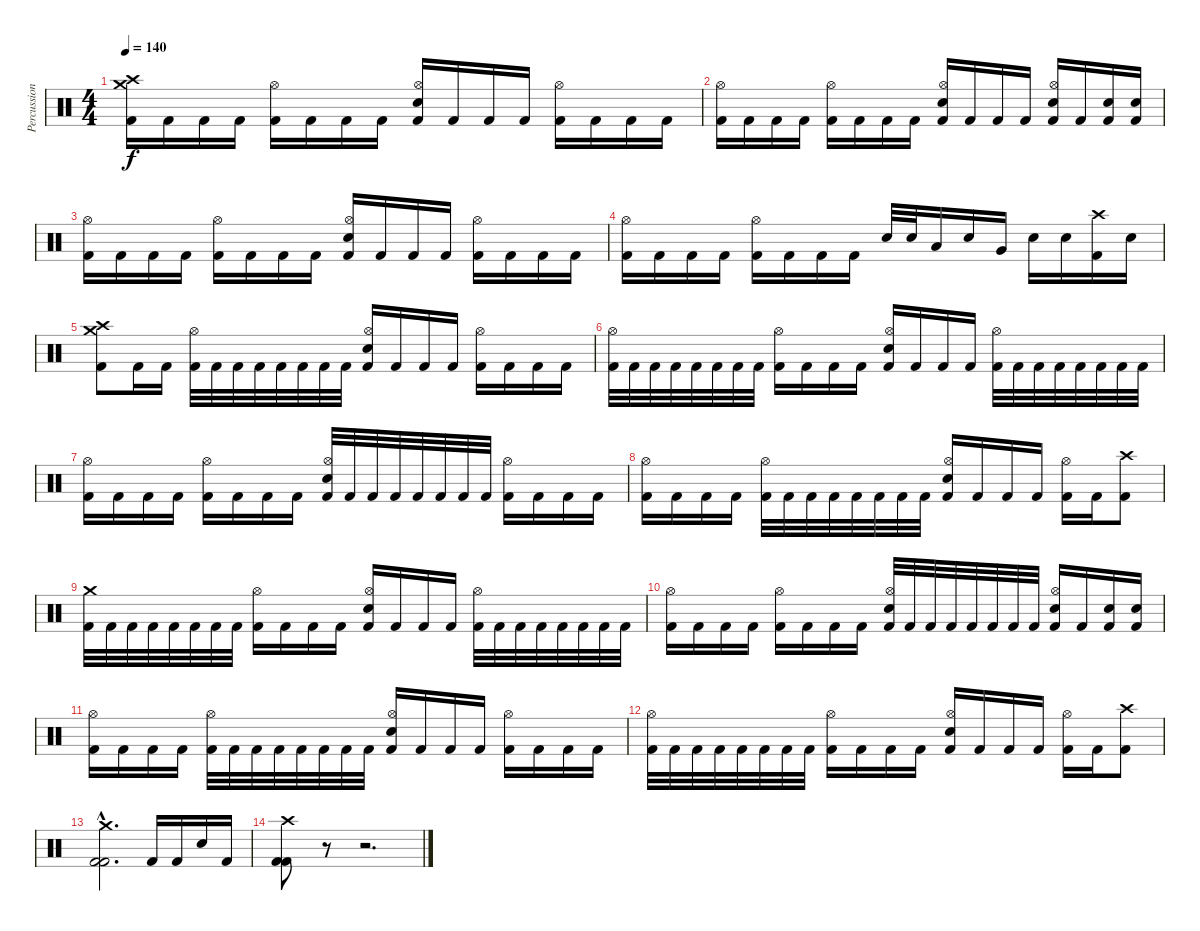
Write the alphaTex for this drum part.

\track ("Percussion" "Percussion") {instrument percussion}
\staff {score}
\articulation defaults
\ts (4 4)
\tempo 140
\clef neutral
\ks c
("Crash medium (hit)" "Crash high (hit)" "Kick (hit) 2").16{dy f} "Kick (hit) 2".16 "Kick (hit) 2".16 "Kick (hit) 2".16 ("Hi-Hat (open)" "Kick (hit) 2").16 "Kick (hit) 2".16 "Kick (hit) 2".16 "Kick (hit) 2".16 ("Hi-Hat (open)" "Electric Snare (hit)" "Kick (hit) 2").16 "Kick (hit) 2".16 "Kick (hit) 2".16 "Kick (hit) 2".16 ("Hi-Hat (open)" "Kick (hit) 2").16 "Kick (hit) 2".16 "Kick (hit) 2".16 "Kick (hit) 2".16 |
("Hi-Hat (open)" "Kick (hit) 2").16 "Kick (hit) 2".16 "Kick (hit) 2".16 "Kick (hit) 2".16 ("Hi-Hat (open)" "Kick (hit) 2").16 "Kick (hit) 2".16 "Kick (hit) 2".16 "Kick (hit) 2".16 ("Hi-Hat (open)" "Electric Snare (hit)" "Kick (hit) 2").16 "Kick (hit) 2".16 "Kick (hit) 2".16 "Kick (hit) 2".16 ("Hi-Hat (open)" "Electric Snare (hit)" "Kick (hit) 2").16 "Kick (hit) 2".16 ("Electric Snare (hit)" "Kick (hit) 2").16 ("Electric Snare (hit)" "Kick (hit) 2").16 |
("Hi-Hat (open)" "Kick (hit) 2").16 "Kick (hit) 2".16 "Kick (hit) 2".16 "Kick (hit) 2".16 ("Hi-Hat (open)" "Kick (hit) 2").16 "Kick (hit) 2".16 "Kick (hit) 2".16 "Kick (hit) 2".16 ("Hi-Hat (open)" "Electric Snare (hit)" "Kick (hit) 2").16 "Kick (hit) 2".16 "Kick (hit) 2".16 "Kick (hit) 2".16 ("Hi-Hat (open)" "Kick (hit) 2").16 "Kick (hit) 2".16 "Kick (hit) 2".16 "Kick (hit) 2".16 |
("Hi-Hat (open)" "Kick (hit) 2").16 "Kick (hit) 2".16 "Kick (hit) 2".16 "Kick (hit) 2".16 ("Hi-Hat (open)" "Kick (hit) 2").16 "Kick (hit) 2".16 "Kick (hit) 2".16 "Kick (hit) 2".16 "Electric Snare (hit)".32 "Electric Snare (hit)".32 "Low Tom (hit)".16 "Electric Snare (hit)".16 "Very Low Tom (hit)".16 "Electric Snare (hit)".16 "Electric Snare (hit)".16 ("Crash high (hit)" "Kick (hit) 2").16 "Electric Snare (hit)".16 |
("Crash medium (hit)" "Crash high (hit)" "Kick (hit) 2").8 "Kick (hit) 2".16 "Kick (hit) 2".16 ("Hi-Hat (open)" "Kick (hit) 2").32 "Kick (hit) 2".32 "Kick (hit) 2".32 "Kick (hit) 2".32 "Kick (hit) 2".32 "Kick (hit) 2".32 "Kick (hit) 2".32 "Kick (hit) 2".32 ("Hi-Hat (open)" "Electric Snare (hit)" "Kick (hit) 2").16 "Kick (hit) 2".16 "Kick (hit) 2".16 "Kick (hit) 2".16 ("Hi-Hat (open)" "Kick (hit) 2").16 "Kick (hit) 2".16 "Kick (hit) 2".16 "Kick (hit) 2".16 |
("Hi-Hat (open)" "Kick (hit) 2").32 "Kick (hit) 2".32 "Kick (hit) 2".32 "Kick (hit) 2".32 "Kick (hit) 2".32 "Kick (hit) 2".32 "Kick (hit) 2".32 "Kick (hit) 2".32 ("Hi-Hat (open)" "Kick (hit) 2").16 "Kick (hit) 2".16 "Kick (hit) 2".16 "Kick (hit) 2".16 ("Hi-Hat (open)" "Electric Snare (hit)" "Kick (hit) 2").16 "Kick (hit) 2".16 "Kick (hit) 2".16 "Kick (hit) 2".16 ("Hi-Hat (open)" "Kick (hit) 2").32 "Kick (hit) 2".32 "Kick (hit) 2".32 "Kick (hit) 2".32 "Kick (hit) 2".32 "Kick (hit) 2".32 "Kick (hit) 2".32 "Kick (hit) 2".32 |
("Hi-Hat (open)" "Kick (hit) 2").16 "Kick (hit) 2".16 "Kick (hit) 2".16 "Kick (hit) 2".16 ("Hi-Hat (open)" "Kick (hit) 2").16 "Kick (hit) 2".16 "Kick (hit) 2".16 "Kick (hit) 2".16 ("Hi-Hat (open)" "Electric Snare (hit)" "Kick (hit) 2").32 "Kick (hit) 2".32 "Kick (hit) 2".32 "Kick (hit) 2".32 "Kick (hit) 2".32 "Kick (hit) 2".32 "Kick (hit) 2".32 "Kick (hit) 2".32 ("Hi-Hat (open)" "Kick (hit) 2").16 "Kick (hit) 2".16 "Kick (hit) 2".16 "Kick (hit) 2".16 |
("Hi-Hat (open)" "Kick (hit) 2").16 "Kick (hit) 2".16 "Kick (hit) 2".16 "Kick (hit) 2".16 ("Hi-Hat (open)" "Kick (hit) 2").32 "Kick (hit) 2".32 "Kick (hit) 2".32 "Kick (hit) 2".32 "Kick (hit) 2".32 "Kick (hit) 2".32 "Kick (hit) 2".32 "Kick (hit) 2".32 ("Hi-Hat (open)" "Electric Snare (hit)" "Kick (hit) 2").16 "Kick (hit) 2".16 "Kick (hit) 2".16 "Kick (hit) 2".16 ("Hi-Hat (open)" "Kick (hit) 2").16 "Kick (hit) 2".16 ("Crash high (hit)" "Kick (hit) 2").8 |
("Crash medium (hit)" "Kick (hit) 2").32 "Kick (hit) 2".32 "Kick (hit) 2".32 "Kick (hit) 2".32 "Kick (hit) 2".32 "Kick (hit) 2".32 "Kick (hit) 2".32 "Kick (hit) 2".32 ("Hi-Hat (open)" "Kick (hit) 2").16 "Kick (hit) 2".16 "Kick (hit) 2".16 "Kick (hit) 2".16 ("Hi-Hat (open)" "Electric Snare (hit)" "Kick (hit) 2").16 "Kick (hit) 2".16 "Kick (hit) 2".16 "Kick (hit) 2".16 ("Hi-Hat (open)" "Kick (hit) 2").32 "Kick (hit) 2".32 "Kick (hit) 2".32 "Kick (hit) 2".32 "Kick (hit) 2".32 "Kick (hit) 2".32 "Kick (hit) 2".32 "Kick (hit) 2".32 |
("Hi-Hat (open)" "Kick (hit) 2").16 "Kick (hit) 2".16 "Kick (hit) 2".16 "Kick (hit) 2".16 ("Hi-Hat (open)" "Kick (hit) 2").16 "Kick (hit) 2".16 "Kick (hit) 2".16 "Kick (hit) 2".16 ("Hi-Hat (open)" "Electric Snare (hit)" "Kick (hit) 2").32 "Kick (hit) 2".32 "Kick (hit) 2".32 "Kick (hit) 2".32 "Kick (hit) 2".32 "Kick (hit) 2".32 "Kick (hit) 2".32 "Kick (hit) 2".32 ("Hi-Hat (open)" "Electric Snare (hit)" "Kick (hit) 2").16 "Kick (hit) 2".16 ("Electric Snare (hit)" "Kick (hit) 2").16 ("Electric Snare (hit)" "Kick (hit) 2").16 |
("Hi-Hat (open)" "Kick (hit) 2").16 "Kick (hit) 2".16 "Kick (hit) 2".16 "Kick (hit) 2".16 ("Hi-Hat (open)" "Kick (hit) 2").32 "Kick (hit) 2".32 "Kick (hit) 2".32 "Kick (hit) 2".32 "Kick (hit) 2".32 "Kick (hit) 2".32 "Kick (hit) 2".32 "Kick (hit) 2".32 ("Hi-Hat (open)" "Electric Snare (hit)" "Kick (hit) 2").16 "Kick (hit) 2".16 "Kick (hit) 2".16 "Kick (hit) 2".16 ("Hi-Hat (open)" "Kick (hit) 2").16 "Kick (hit) 2".16 "Kick (hit) 2".16 "Kick (hit) 2".16 |
("Hi-Hat (open)" "Kick (hit) 2").32 "Kick (hit) 2".32 "Kick (hit) 2".32 "Kick (hit) 2".32 "Kick (hit) 2".32 "Kick (hit) 2".32 "Kick (hit) 2".32 "Kick (hit) 2".32 ("Hi-Hat (open)" "Kick (hit) 2").16 "Kick (hit) 2".16 "Kick (hit) 2".16 "Kick (hit) 2".16 ("Hi-Hat (open)" "Electric Snare (hit)" "Kick (hit) 2").16 "Kick (hit) 2".16 "Kick (hit) 2".16 "Kick (hit) 2".16 ("Hi-Hat (open)" "Kick (hit) 2").16 "Kick (hit) 2".16 ("Crash high (hit)" "Kick (hit) 2").8 |
("Crash medium (hit)"{hac} "Kick (hit) 2"{hac} "Kick (hit) 2"{hac}).2{d} "Kick (hit) 2".16 "Kick (hit) 2".16 "Electric Snare (hit)".16 "Kick (hit) 2".16 |
("Crash high (hit)" "Kick (hit) 2" "Kick (hit) 2").8 r.8 r.2{d}
